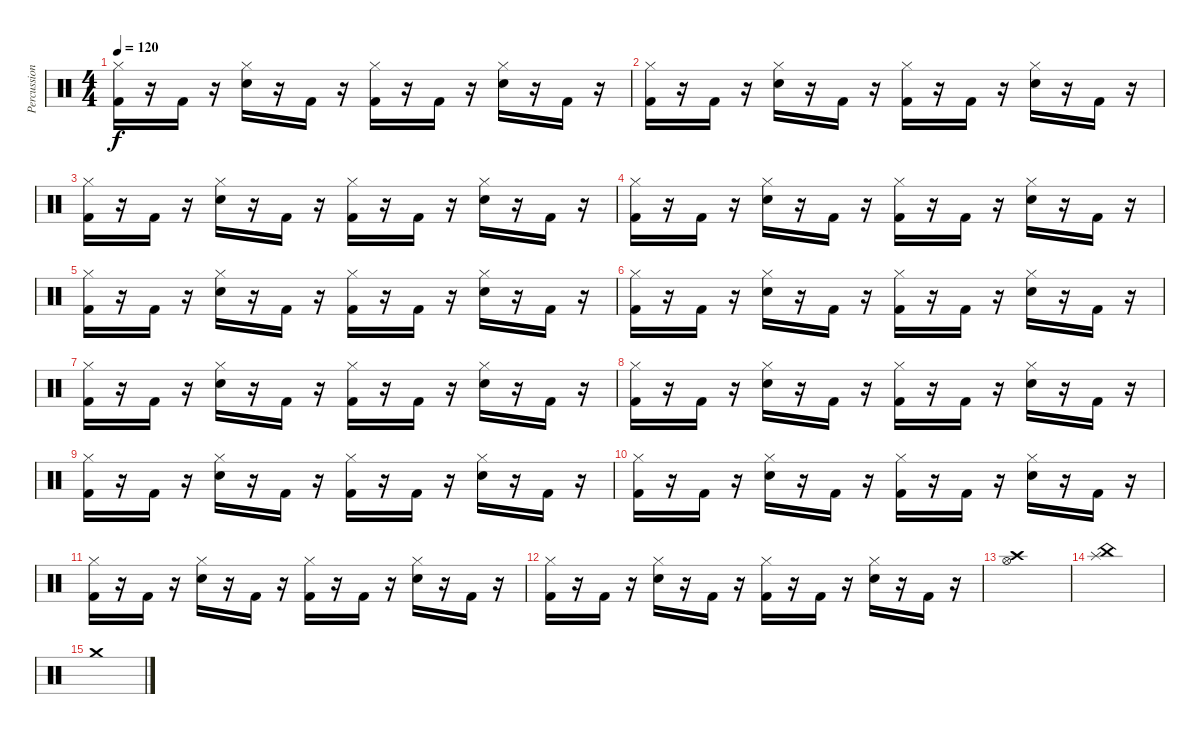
\track ("Percussion" "Percussion") {instrument percussion}
\staff {score}
\articulation defaults
\ts (4 4)
\tempo 120
\clef neutral
\ks c
("Kick (hit) 2" "Hi-Hat (closed)").16{dy f} r.16 "Kick (hit) 2".16 r.16 ("Snare (hit) 2" "Hi-Hat (closed)").16 r.16 "Kick (hit) 2".16 r.16 ("Kick (hit) 2" "Hi-Hat (closed)").16 r.16 "Kick (hit) 2".16 r.16 ("Snare (hit) 2" "Hi-Hat (closed)").16 r.16 "Kick (hit) 2".16 r.16 |
("Kick (hit) 2" "Hi-Hat (closed)").16 r.16 "Kick (hit) 2".16 r.16 ("Snare (hit) 2" "Hi-Hat (closed)").16 r.16 "Kick (hit) 2".16 r.16 ("Kick (hit) 2" "Hi-Hat (closed)").16 r.16 "Kick (hit) 2".16 r.16 ("Snare (hit) 2" "Hi-Hat (closed)").16 r.16 "Kick (hit) 2".16 r.16 |
("Kick (hit) 2" "Hi-Hat (closed)").16 r.16 "Kick (hit) 2".16 r.16 ("Snare (hit) 2" "Hi-Hat (closed)").16 r.16 "Kick (hit) 2".16 r.16 ("Kick (hit) 2" "Hi-Hat (closed)").16 r.16 "Kick (hit) 2".16 r.16 ("Snare (hit) 2" "Hi-Hat (closed)").16 r.16 "Kick (hit) 2".16 r.16 |
("Kick (hit) 2" "Hi-Hat (closed)").16 r.16 "Kick (hit) 2".16 r.16 ("Snare (hit) 2" "Hi-Hat (closed)").16 r.16 "Kick (hit) 2".16 r.16 ("Kick (hit) 2" "Hi-Hat (closed)").16 r.16 "Kick (hit) 2".16 r.16 ("Snare (hit) 2" "Hi-Hat (closed)").16 r.16 "Kick (hit) 2".16 r.16 |
("Kick (hit) 2" "Hi-Hat (closed)").16 r.16 "Kick (hit) 2".16 r.16 ("Snare (hit) 2" "Hi-Hat (closed)").16 r.16 "Kick (hit) 2".16 r.16 ("Kick (hit) 2" "Hi-Hat (closed)").16 r.16 "Kick (hit) 2".16 r.16 ("Snare (hit) 2" "Hi-Hat (closed)").16 r.16 "Kick (hit) 2".16 r.16 |
("Kick (hit) 2" "Hi-Hat (closed)").16 r.16 "Kick (hit) 2".16 r.16 ("Snare (hit) 2" "Hi-Hat (closed)").16 r.16 "Kick (hit) 2".16 r.16 ("Kick (hit) 2" "Hi-Hat (closed)").16 r.16 "Kick (hit) 2".16 r.16 ("Snare (hit) 2" "Hi-Hat (closed)").16 r.16 "Kick (hit) 2".16 r.16 |
("Kick (hit) 2" "Hi-Hat (closed)").16 r.16 "Kick (hit) 2".16 r.16 ("Snare (hit) 2" "Hi-Hat (closed)").16 r.16 "Kick (hit) 2".16 r.16 ("Kick (hit) 2" "Hi-Hat (closed)").16 r.16 "Kick (hit) 2".16 r.16 ("Snare (hit) 2" "Hi-Hat (closed)").16 r.16 "Kick (hit) 2".16 r.16 |
("Kick (hit) 2" "Hi-Hat (closed)").16 r.16 "Kick (hit) 2".16 r.16 ("Snare (hit) 2" "Hi-Hat (closed)").16 r.16 "Kick (hit) 2".16 r.16 ("Kick (hit) 2" "Hi-Hat (closed)").16 r.16 "Kick (hit) 2".16 r.16 ("Snare (hit) 2" "Hi-Hat (closed)").16 r.16 "Kick (hit) 2".16 r.16 |
("Kick (hit) 2" "Hi-Hat (closed)").16 r.16 "Kick (hit) 2".16 r.16 ("Snare (hit) 2" "Hi-Hat (closed)").16 r.16 "Kick (hit) 2".16 r.16 ("Kick (hit) 2" "Hi-Hat (closed)").16 r.16 "Kick (hit) 2".16 r.16 ("Snare (hit) 2" "Hi-Hat (closed)").16 r.16 "Kick (hit) 2".16 r.16 |
("Kick (hit) 2" "Hi-Hat (closed)").16 r.16 "Kick (hit) 2".16 r.16 ("Snare (hit) 2" "Hi-Hat (closed)").16 r.16 "Kick (hit) 2".16 r.16 ("Kick (hit) 2" "Hi-Hat (closed)").16 r.16 "Kick (hit) 2".16 r.16 ("Snare (hit) 2" "Hi-Hat (closed)").16 r.16 "Kick (hit) 2".16 r.16 |
("Kick (hit) 2" "Hi-Hat (closed)").16 r.16 "Kick (hit) 2".16 r.16 ("Snare (hit) 2" "Hi-Hat (closed)").16 r.16 "Kick (hit) 2".16 r.16 ("Kick (hit) 2" "Hi-Hat (closed)").16 r.16 "Kick (hit) 2".16 r.16 ("Snare (hit) 2" "Hi-Hat (closed)").16 r.16 "Kick (hit) 2".16 r.16 |
("Kick (hit) 2" "Hi-Hat (closed)").16 r.16 "Kick (hit) 2".16 r.16 ("Snare (hit) 2" "Hi-Hat (closed)").16 r.16 "Kick (hit) 2".16 r.16 ("Kick (hit) 2" "Hi-Hat (closed)").16 r.16 "Kick (hit) 2".16 r.16 ("Snare (hit) 2" "Hi-Hat (closed)").16 r.16 "Kick (hit) 2".16 r.16 |
("Hi-Hat (open)" "Crash high (hit)").1 |
("Splash (hit)" "China (hit)").1 |
"Crash medium (hit)".1
